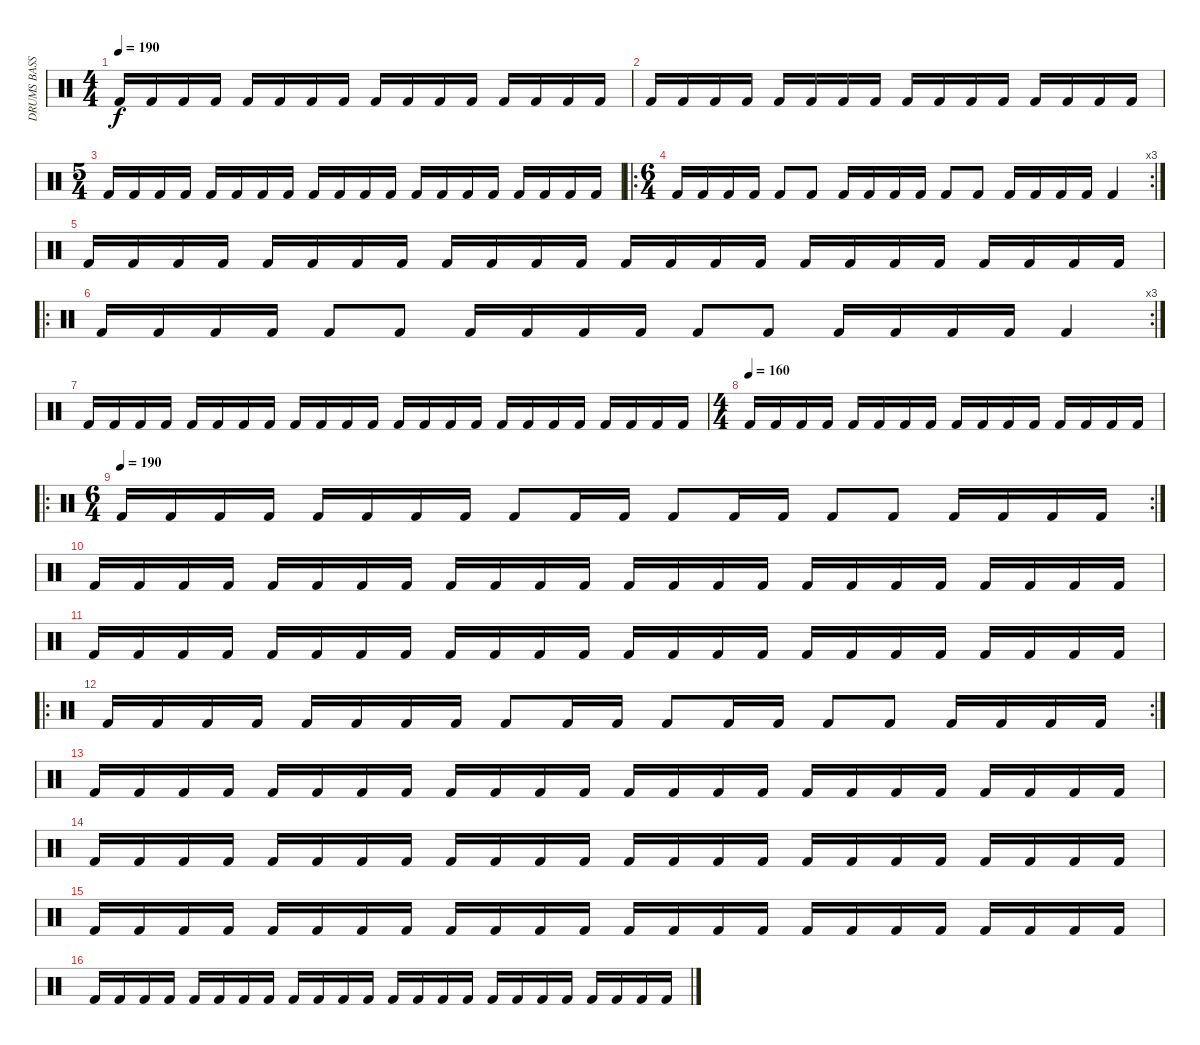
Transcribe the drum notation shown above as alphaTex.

\track ("DRUMS BASS" "DRUMS BASS") {instrument percussion}
\staff {score}
\articulation defaults
\ts (4 4)
\tempo 190
\clef neutral
\ks c "Kick (hit) 2".16{dy f} "Kick (hit) 2".16 "Kick (hit) 2".16 "Kick (hit) 2".16 "Kick (hit) 2".16 "Kick (hit) 2".16 "Kick (hit) 2".16 "Kick (hit) 2".16 "Kick (hit) 2".16 "Kick (hit) 2".16 "Kick (hit) 2".16 "Kick (hit) 2".16 "Kick (hit) 2".16 "Kick (hit) 2".16 "Kick (hit) 2".16 "Kick (hit) 2".16
|
"Kick (hit) 2".16 "Kick (hit) 2".16 "Kick (hit) 2".16 "Kick (hit) 2".16 "Kick (hit) 2".16 "Kick (hit) 2".16 "Kick (hit) 2".16 "Kick (hit) 2".16 "Kick (hit) 2".16 "Kick (hit) 2".16 "Kick (hit) 2".16 "Kick (hit) 2".16 "Kick (hit) 2".16 "Kick (hit) 2".16 "Kick (hit) 2".16 "Kick (hit) 2".16 |
\ts (5 4)
"Kick (hit) 2".16 "Kick (hit) 2".16 "Kick (hit) 2".16 "Kick (hit) 2".16 "Kick (hit) 2".16 "Kick (hit) 2".16 "Kick (hit) 2".16 "Kick (hit) 2".16 "Kick (hit) 2".16 "Kick (hit) 2".16 "Kick (hit) 2".16 "Kick (hit) 2".16 "Kick (hit) 2".16 "Kick (hit) 2".16 "Kick (hit) 2".16 "Kick (hit) 2".16 "Kick (hit) 2".16 "Kick (hit) 2".16 "Kick (hit) 2".16 "Kick (hit) 2".16 |
\ro
\rc 3
\ts (6 4)
"Kick (hit) 2".16 "Kick (hit) 2".16 "Kick (hit) 2".16 "Kick (hit) 2".16 "Kick (hit) 2".8 "Kick (hit) 2".8 "Kick (hit) 2".16 "Kick (hit) 2".16 "Kick (hit) 2".16 "Kick (hit) 2".16 "Kick (hit) 2".8 "Kick (hit) 2".8 "Kick (hit) 2".16 "Kick (hit) 2".16 "Kick (hit) 2".16 "Kick (hit) 2".16 "Kick (hit) 2".4 |
"Kick (hit) 2".16 "Kick (hit) 2".16 "Kick (hit) 2".16 "Kick (hit) 2".16 "Kick (hit) 2".16 "Kick (hit) 2".16 "Kick (hit) 2".16 "Kick (hit) 2".16 "Kick (hit) 2".16 "Kick (hit) 2".16 "Kick (hit) 2".16 "Kick (hit) 2".16 "Kick (hit) 2".16 "Kick (hit) 2".16 "Kick (hit) 2".16 "Kick (hit) 2".16 "Kick (hit) 2".16 "Kick (hit) 2".16 "Kick (hit) 2".16 "Kick (hit) 2".16 "Kick (hit) 2".16 "Kick (hit) 2".16 "Kick (hit) 2".16 "Kick (hit) 2".16 |
\ro
\rc 3 "Kick (hit) 2".16 "Kick (hit) 2".16 "Kick (hit) 2".16 "Kick (hit) 2".16 "Kick (hit) 2".8 "Kick (hit) 2".8 "Kick (hit) 2".16 "Kick (hit) 2".16 "Kick (hit) 2".16 "Kick (hit) 2".16 "Kick (hit) 2".8 "Kick (hit) 2".8 "Kick (hit) 2".16 "Kick (hit) 2".16 "Kick (hit) 2".16 "Kick (hit) 2".16 "Kick (hit) 2".4
|
"Kick (hit) 2".16 "Kick (hit) 2".16 "Kick (hit) 2".16 "Kick (hit) 2".16 "Kick (hit) 2".16 "Kick (hit) 2".16 "Kick (hit) 2".16 "Kick (hit) 2".16 "Kick (hit) 2".16 "Kick (hit) 2".16 "Kick (hit) 2".16 "Kick (hit) 2".16 "Kick (hit) 2".16 "Kick (hit) 2".16 "Kick (hit) 2".16 "Kick (hit) 2".16 "Kick (hit) 2".16 "Kick (hit) 2".16 "Kick (hit) 2".16 "Kick (hit) 2".16 "Kick (hit) 2".16 "Kick (hit) 2".16 "Kick (hit) 2".16 "Kick (hit) 2".16 |
\ts (4 4)
\tempo (160)
"Kick (hit) 2".16 "Kick (hit) 2".16 "Kick (hit) 2".16 "Kick (hit) 2".16 "Kick (hit) 2".16 "Kick (hit) 2".16 "Kick (hit) 2".16 "Kick (hit) 2".16 "Kick (hit) 2".16 "Kick (hit) 2".16 "Kick (hit) 2".16 "Kick (hit) 2".16 "Kick (hit) 2".16 "Kick (hit) 2".16 "Kick (hit) 2".16 "Kick (hit) 2".16 |
\ro
\rc 2
\ts (6 4)
\tempo (190)
"Kick (hit) 2".16 "Kick (hit) 2".16 "Kick (hit) 2".16 "Kick (hit) 2".16 "Kick (hit) 2".16 "Kick (hit) 2".16 "Kick (hit) 2".16 "Kick (hit) 2".16 "Kick (hit) 2".8 "Kick (hit) 2".16 "Kick (hit) 2".16 "Kick (hit) 2".8 "Kick (hit) 2".16 "Kick (hit) 2".16 "Kick (hit) 2".8 "Kick (hit) 2".8 "Kick (hit) 2".16 "Kick (hit) 2".16 "Kick (hit) 2".16 "Kick (hit) 2".16 |
"Kick (hit) 2".16 "Kick (hit) 2".16 "Kick (hit) 2".16 "Kick (hit) 2".16 "Kick (hit) 2".16 "Kick (hit) 2".16 "Kick (hit) 2".16 "Kick (hit) 2".16 "Kick (hit) 2".16 "Kick (hit) 2".16 "Kick (hit) 2".16 "Kick (hit) 2".16 "Kick (hit) 2".16 "Kick (hit) 2".16 "Kick (hit) 2".16 "Kick (hit) 2".16 "Kick (hit) 2".16 "Kick (hit) 2".16 "Kick (hit) 2".16 "Kick (hit) 2".16 "Kick (hit) 2".16 "Kick (hit) 2".16 "Kick (hit) 2".16 "Kick (hit) 2".16 |
"Kick (hit) 2".16 "Kick (hit) 2".16 "Kick (hit) 2".16 "Kick (hit) 2".16 "Kick (hit) 2".16 "Kick (hit) 2".16 "Kick (hit) 2".16 "Kick (hit) 2".16 "Kick (hit) 2".16 "Kick (hit) 2".16 "Kick (hit) 2".16 "Kick (hit) 2".16 "Kick (hit) 2".16 "Kick (hit) 2".16 "Kick (hit) 2".16 "Kick (hit) 2".16 "Kick (hit) 2".16 "Kick (hit) 2".16 "Kick (hit) 2".16 "Kick (hit) 2".16 "Kick (hit) 2".16 "Kick (hit) 2".16 "Kick (hit) 2".16 "Kick (hit) 2".16 |
\ro
\rc 2 "Kick (hit) 2".16 "Kick (hit) 2".16 "Kick (hit) 2".16 "Kick (hit) 2".16 "Kick (hit) 2".16 "Kick (hit) 2".16 "Kick (hit) 2".16 "Kick (hit) 2".16 "Kick (hit) 2".8 "Kick (hit) 2".16 "Kick (hit) 2".16 "Kick (hit) 2".8 "Kick (hit) 2".16 "Kick (hit) 2".16 "Kick (hit) 2".8 "Kick (hit) 2".8 "Kick (hit) 2".16 "Kick (hit) 2".16 "Kick (hit) 2".16 "Kick (hit) 2".16
|
"Kick (hit) 2".16 "Kick (hit) 2".16 "Kick (hit) 2".16 "Kick (hit) 2".16 "Kick (hit) 2".16 "Kick (hit) 2".16 "Kick (hit) 2".16 "Kick (hit) 2".16 "Kick (hit) 2".16 "Kick (hit) 2".16 "Kick (hit) 2".16 "Kick (hit) 2".16 "Kick (hit) 2".16 "Kick (hit) 2".16 "Kick (hit) 2".16 "Kick (hit) 2".16 "Kick (hit) 2".16 "Kick (hit) 2".16 "Kick (hit) 2".16 "Kick (hit) 2".16 "Kick (hit) 2".16 "Kick (hit) 2".16 "Kick (hit) 2".16 "Kick (hit) 2".16 |
"Kick (hit) 2".16 "Kick (hit) 2".16 "Kick (hit) 2".16 "Kick (hit) 2".16 "Kick (hit) 2".16 "Kick (hit) 2".16 "Kick (hit) 2".16 "Kick (hit) 2".16 "Kick (hit) 2".16 "Kick (hit) 2".16 "Kick (hit) 2".16 "Kick (hit) 2".16 "Kick (hit) 2".16 "Kick (hit) 2".16 "Kick (hit) 2".16 "Kick (hit) 2".16 "Kick (hit) 2".16 "Kick (hit) 2".16 "Kick (hit) 2".16 "Kick (hit) 2".16 "Kick (hit) 2".16 "Kick (hit) 2".16 "Kick (hit) 2".16 "Kick (hit) 2".16 |
"Kick (hit) 2".16 "Kick (hit) 2".16 "Kick (hit) 2".16 "Kick (hit) 2".16 "Kick (hit) 2".16 "Kick (hit) 2".16 "Kick (hit) 2".16 "Kick (hit) 2".16 "Kick (hit) 2".16 "Kick (hit) 2".16 "Kick (hit) 2".16 "Kick (hit) 2".16 "Kick (hit) 2".16 "Kick (hit) 2".16 "Kick (hit) 2".16 "Kick (hit) 2".16 "Kick (hit) 2".16 "Kick (hit) 2".16 "Kick (hit) 2".16 "Kick (hit) 2".16 "Kick (hit) 2".16 "Kick (hit) 2".16 "Kick (hit) 2".16 "Kick (hit) 2".16 |
"Kick (hit) 2".16 "Kick (hit) 2".16 "Kick (hit) 2".16 "Kick (hit) 2".16 "Kick (hit) 2".16 "Kick (hit) 2".16 "Kick (hit) 2".16 "Kick (hit) 2".16 "Kick (hit) 2".16 "Kick (hit) 2".16 "Kick (hit) 2".16 "Kick (hit) 2".16 "Kick (hit) 2".16 "Kick (hit) 2".16 "Kick (hit) 2".16 "Kick (hit) 2".16 "Kick (hit) 2".16 "Kick (hit) 2".16 "Kick (hit) 2".16 "Kick (hit) 2".16 "Kick (hit) 2".16 "Kick (hit) 2".16 "Kick (hit) 2".16 "Kick (hit) 2".16
